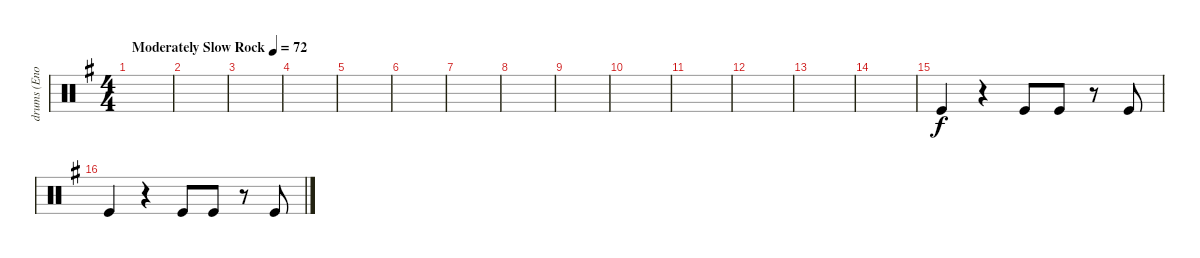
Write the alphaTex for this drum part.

\track ("drums (Enoch)" "drums (Eno") {instrument percussion}
\staff {score}
\articulation defaults
\ts (4 4)
\tempo (72 "Moderately Slow Rock")
\clef neutral
\ks g
|
|
|
|
|
|
|
|
|
|
|
|
|
|
"Kick (hit)".4 r.4 "Kick (hit)".8 "Kick (hit)".8 r.8 "Kick (hit)".8 |
"Kick (hit)".4 r.4 "Kick (hit)".8 "Kick (hit)".8 r.8 "Kick (hit)".8
